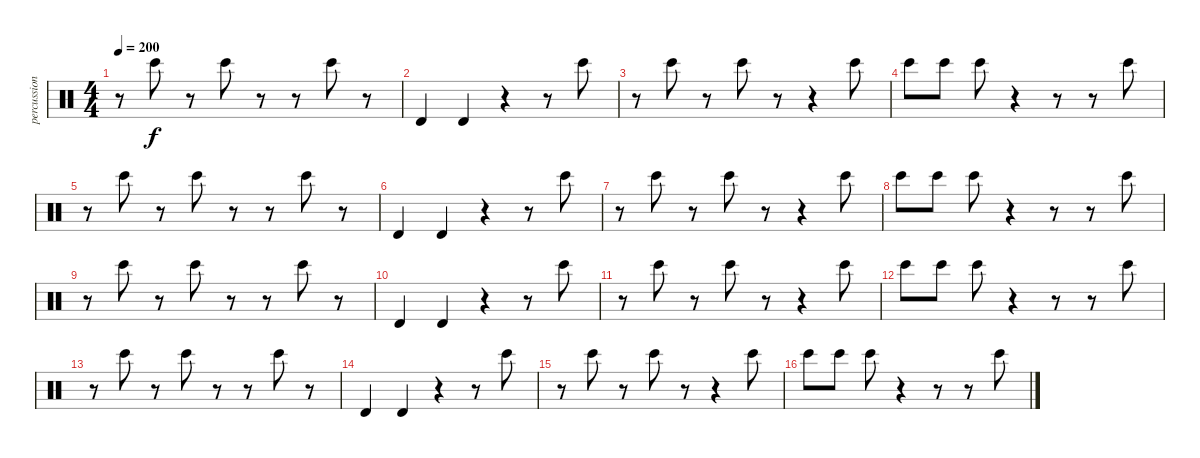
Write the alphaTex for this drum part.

\track ("percussion" "percussion") {instrument percussion}
\staff {score}
\articulation defaults
\ts (4 4)
\tempo 200
\clef neutral
\ks c
r.8{dy f} "Bongo High (hit)".8 r.8 "Bongo High (hit)".8 r.8 r.8 "Bongo High (hit)".8 r.8 |
"Timbale high (hit)".4{volume 16} "Timbale high (hit)".4 r.4{volume 13} r.8 "Bongo High (hit)".8 |
r.8 "Bongo High (hit)".8 r.8 "Bongo High (hit)".8 r.8 r.4 "Bongo High (hit)".8 |
"Bongo High (hit)".8 "Bongo High (hit)".8 "Bongo High (hit)".8 r.4 r.8 r.8 "Bongo High (hit)".8 |
r.8 "Bongo High (hit)".8 r.8 "Bongo High (hit)".8 r.8 r.8 "Bongo High (hit)".8 r.8 |
"Timbale high (hit)".4{volume 16} "Timbale high (hit)".4 r.4{volume 13} r.8 "Bongo High (hit)".8 |
r.8 "Bongo High (hit)".8 r.8 "Bongo High (hit)".8 r.8 r.4 "Bongo High (hit)".8 |
"Bongo High (hit)".8 "Bongo High (hit)".8 "Bongo High (hit)".8 r.4 r.8 r.8 "Bongo High (hit)".8 |
r.8 "Bongo High (hit)".8 r.8 "Bongo High (hit)".8 r.8 r.8 "Bongo High (hit)".8 r.8 |
"Timbale high (hit)".4{volume 16} "Timbale high (hit)".4 r.4{volume 13} r.8 "Bongo High (hit)".8 |
r.8 "Bongo High (hit)".8 r.8 "Bongo High (hit)".8 r.8 r.4 "Bongo High (hit)".8 |
"Bongo High (hit)".8 "Bongo High (hit)".8 "Bongo High (hit)".8 r.4 r.8 r.8 "Bongo High (hit)".8 |
r.8 "Bongo High (hit)".8 r.8 "Bongo High (hit)".8 r.8 r.8 "Bongo High (hit)".8 r.8 |
"Timbale high (hit)".4{volume 16} "Timbale high (hit)".4 r.4{volume 13} r.8 "Bongo High (hit)".8 |
r.8 "Bongo High (hit)".8 r.8 "Bongo High (hit)".8 r.8 r.4 "Bongo High (hit)".8 |
"Bongo High (hit)".8 "Bongo High (hit)".8 "Bongo High (hit)".8 r.4 r.8 r.8 "Bongo High (hit)".8
